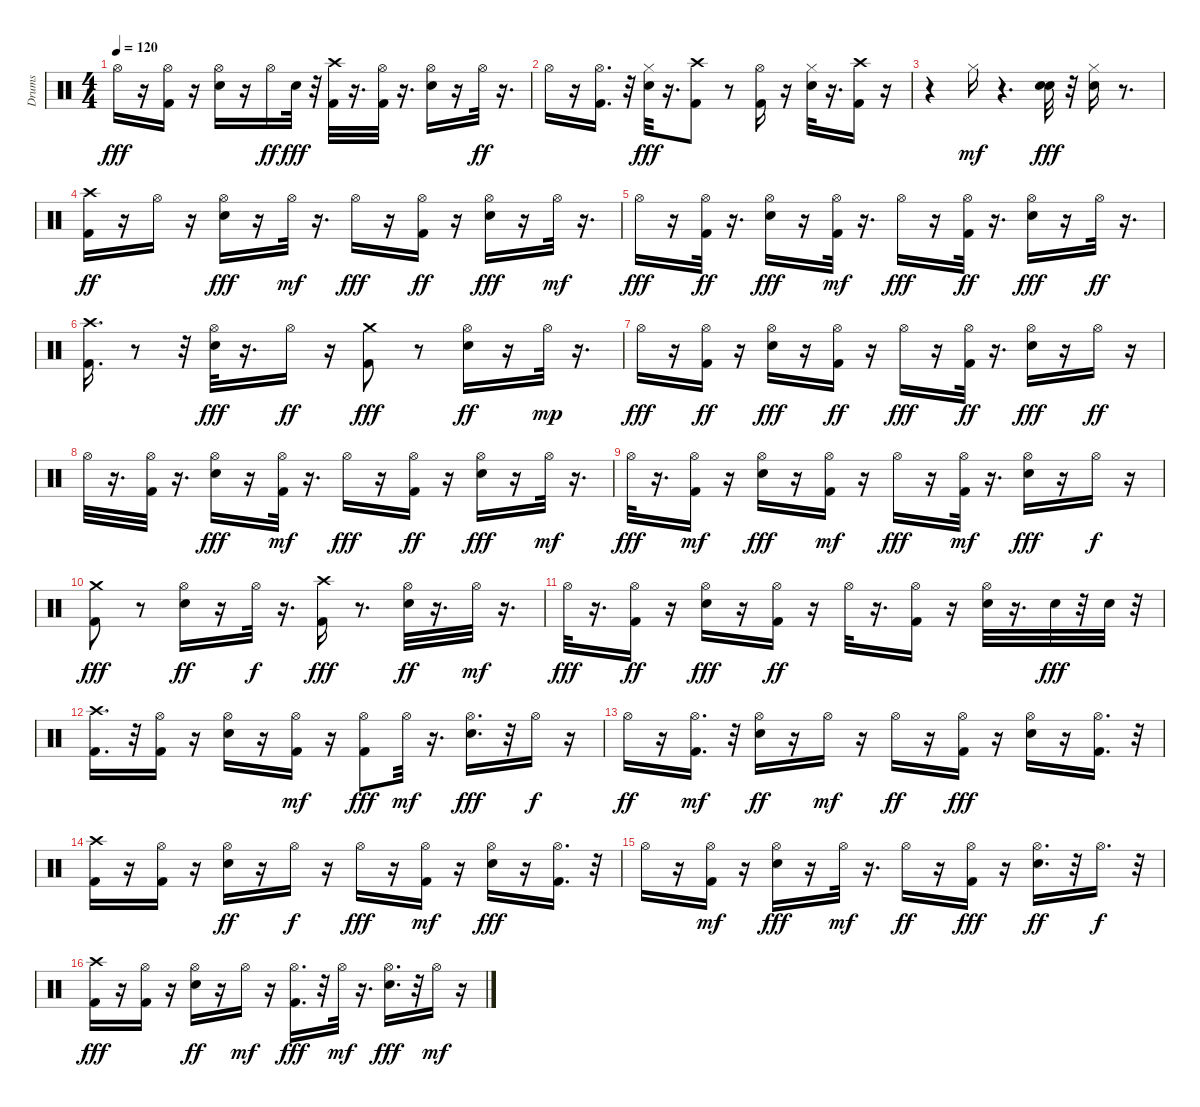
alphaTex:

\track ("Drums" "Drums") {instrument percussion}
\staff {score}
\articulation defaults
\ts (4 4)
\tempo 120
\clef neutral
\ks c "Hi-Hat (open)".16{dy fff}
r.16 ("Hi-Hat (open)" "Kick (hit) 2").16 r.16 ("Hi-Hat (open)" "Electric Snare (hit)").16 r.16 "Hi-Hat (open)".16{dy ff} "Electric Snare (hit)".32{dy fff} r.32 ("Crash high (hit)" "Kick (hit) 2").32 r.16{d} ("Hi-Hat (open)" "Kick (hit) 2").32 r.16{d} ("Hi-Hat (open)" "Electric Snare (hit)").16 r.16 "Hi-Hat (open)".32{dy ff} r.16{d} |
"Hi-Hat (open)".16 r.16 ("Hi-Hat (open)" "Kick (hit) 2").16{d} r.32 ("Hi-Hat (closed)" "Electric Snare (hit)").32{dy fff} r.16{d} ("Crash high (hit)" "Kick (hit) 2").8 r.8 ("Hi-Hat (open)" "Kick (hit) 2").16 r.16 ("Hi-Hat (closed)" "Electric Snare (hit)").32 r.16{d} ("Crash high (hit)" "Kick (hit) 2").16 r.16 |
r.4 "Hi-Hat (closed)".16{dy mf} r.4{d} ("Electric Snare (hit)" "Electric Snare (hit)").32{dy fff} r.32 ("Hi-Hat (closed)" "Electric Snare (hit)").16 r.8{d} |
("Kick (hit) 2" "Crash high (hit)").16{dy ff} r.16 "Hi-Hat (open)".16 r.16 ("Electric Snare (hit)" "Hi-Hat (open)").16{dy fff} r.16 "Hi-Hat (open)".32{dy mf} r.16{d} "Hi-Hat (open)".16{dy fff} r.16 ("Kick (hit) 2" "Hi-Hat (open)").16{dy ff} r.16 ("Electric Snare (hit)" "Hi-Hat (open)").16{dy fff} r.16 "Hi-Hat (open)".32{dy mf} r.16{d} |
"Hi-Hat (open)".16{dy fff} r.16 ("Kick (hit) 2" "Hi-Hat (open)").32{dy ff} r.16{d} ("Electric Snare (hit)" "Hi-Hat (open)").16{dy fff} r.16 ("Kick (hit) 2" "Hi-Hat (open)").32{dy mf} r.16{d} "Hi-Hat (open)".16{dy fff} r.16 ("Kick (hit) 2" "Hi-Hat (open)").32{dy ff} r.16{d} ("Electric Snare (hit)" "Hi-Hat (open)").16{dy fff} r.16 "Hi-Hat (open)".32{dy ff} r.16{d} |
("Kick (hit) 2" "Crash high (hit)").16{d} r.8 r.32 ("Electric Snare (hit)" "Hi-Hat (open)").32{dy fff} r.16{d} "Hi-Hat (open)".16{dy ff} r.16 ("Kick (hit) 2" "Crash medium (hit)").8{dy fff} r.8 ("Electric Snare (hit)" "Hi-Hat (open)").16{dy ff} r.16 "Hi-Hat (open)".32{dy mp} r.16{d} |
"Hi-Hat (open)".16{dy fff} r.16 ("Kick (hit) 2" "Hi-Hat (open)").16{dy ff} r.16 ("Electric Snare (hit)" "Hi-Hat (open)").16{dy fff} r.16 ("Kick (hit) 2" "Hi-Hat (open)").16{dy ff} r.16 "Hi-Hat (open)".16{dy fff} r.16 ("Kick (hit) 2" "Hi-Hat (open)").32{dy ff} r.16{d} ("Electric Snare (hit)" "Hi-Hat (open)").16{dy fff} r.16 "Hi-Hat (open)".16{dy ff} r.16 |
"Hi-Hat (open)".32 r.16{d} ("Kick (hit) 2" "Hi-Hat (open)").32 r.16{d} ("Electric Snare (hit)" "Hi-Hat (open)").16{dy fff} r.16 ("Kick (hit) 2" "Hi-Hat (open)").32{dy mf} r.16{d} "Hi-Hat (open)".16{dy fff} r.16 ("Kick (hit) 2" "Hi-Hat (open)").16{dy ff} r.16 ("Electric Snare (hit)" "Hi-Hat (open)").16{dy fff} r.16 "Hi-Hat (open)".32{dy mf} r.16{d} |
"Hi-Hat (open)".32{dy fff} r.16{d} ("Kick (hit) 2" "Hi-Hat (open)").16{dy mf} r.16 ("Electric Snare (hit)" "Hi-Hat (open)").16{dy fff} r.16 ("Kick (hit) 2" "Hi-Hat (open)").16{dy mf} r.16 "Hi-Hat (open)".16{dy fff} r.16 ("Kick (hit) 2" "Hi-Hat (open)").32{dy mf} r.16{d} ("Electric Snare (hit)" "Hi-Hat (open)").16{dy fff} r.16 "Hi-Hat (open)".16{dy f} r.16 |
("Kick (hit) 2" "Crash medium (hit)").8{dy fff} r.8 ("Electric Snare (hit)" "Hi-Hat (open)").16{dy ff} r.16 "Hi-Hat (open)".32{dy f} r.16{d} ("Kick (hit) 2" "Crash high (hit)").16{dy fff} r.8{d} ("Electric Snare (hit)" "Hi-Hat (open)").32{dy ff} r.16{d} "Hi-Hat (open)".32{dy mf} r.16{d} |
"Hi-Hat (open)".32{dy fff} r.16{d} ("Kick (hit) 2" "Hi-Hat (open)").16{dy ff} r.16 ("Electric Snare (hit)" "Hi-Hat (open)").16{dy fff} r.16 ("Kick (hit) 2" "Hi-Hat (open)").16{dy ff} r.16 "Hi-Hat (open)".32 r.16{d} ("Kick (hit) 2" "Hi-Hat (open)").16 r.16 ("Electric Snare (hit)" "Hi-Hat (open)").32 r.16{d} "Electric Snare (hit)".32{dy fff} r.32 "Electric Snare (hit)".32 r.32 |
("Kick (hit) 2" "Crash high (hit)").16{d} r.32 ("Kick (hit) 2" "Hi-Hat (open)").16 r.16 ("Electric Snare (hit)" "Hi-Hat (open)").16 r.16 ("Kick (hit) 2" "Hi-Hat (open)").16{dy mf} r.16 ("Kick (hit) 2" "Hi-Hat (open)").8{dy fff} "Hi-Hat (open)".32{dy mf} r.16{d} ("Electric Snare (hit)" "Hi-Hat (open)").16{d dy fff} r.32 "Hi-Hat (open)".16{dy f} r.16 |
"Hi-Hat (open)".16{dy ff} r.16 ("Kick (hit) 2" "Hi-Hat (open)").16{d dy mf} r.32 ("Electric Snare (hit)" "Hi-Hat (open)").16{dy ff} r.16 "Hi-Hat (open)".16{dy mf} r.16 "Hi-Hat (open)".16{dy ff} r.16 ("Kick (hit) 2" "Hi-Hat (open)").16{dy fff} r.16 ("Electric Snare (hit)" "Hi-Hat (open)").16 r.16 ("Kick (hit) 2" "Hi-Hat (open)").16{d} r.32 |
("Kick (hit) 2" "Crash high (hit)").16 r.16 ("Kick (hit) 2" "Hi-Hat (open)").16 r.16 ("Electric Snare (hit)" "Hi-Hat (open)").16{dy ff} r.16 "Hi-Hat (open)".16{dy f} r.16 "Hi-Hat (open)".16{dy fff} r.16 ("Kick (hit) 2" "Hi-Hat (open)").16{dy mf} r.16 ("Electric Snare (hit)" "Hi-Hat (open)").16{dy fff} r.16 ("Kick (hit) 2" "Hi-Hat (open)").16{d} r.32 |
"Hi-Hat (open)".16 r.16 ("Kick (hit) 2" "Hi-Hat (open)").16{dy mf} r.16 ("Electric Snare (hit)" "Hi-Hat (open)").16{dy fff} r.16 "Hi-Hat (open)".32{dy mf} r.16{d} "Hi-Hat (open)".16{dy ff} r.16 ("Kick (hit) 2" "Hi-Hat (open)").16{dy fff} r.16 ("Electric Snare (hit)" "Hi-Hat (open)").16{d dy ff} r.32 "Hi-Hat (open)".16{d dy f} r.32 |
("Kick (hit) 2" "Crash high (hit)").16{dy fff} r.16 ("Kick (hit) 2" "Hi-Hat (open)").16 r.16 ("Electric Snare (hit)" "Hi-Hat (open)").16{dy ff} r.16 "Hi-Hat (open)".16{dy mf} r.16 ("Kick (hit) 2" "Hi-Hat (open)").16{d dy fff} r.32 "Hi-Hat (open)".32{dy mf} r.16{d} ("Electric Snare (hit)" "Hi-Hat (open)").16{d dy fff} r.32 "Hi-Hat (open)".16{dy mf} r.16
